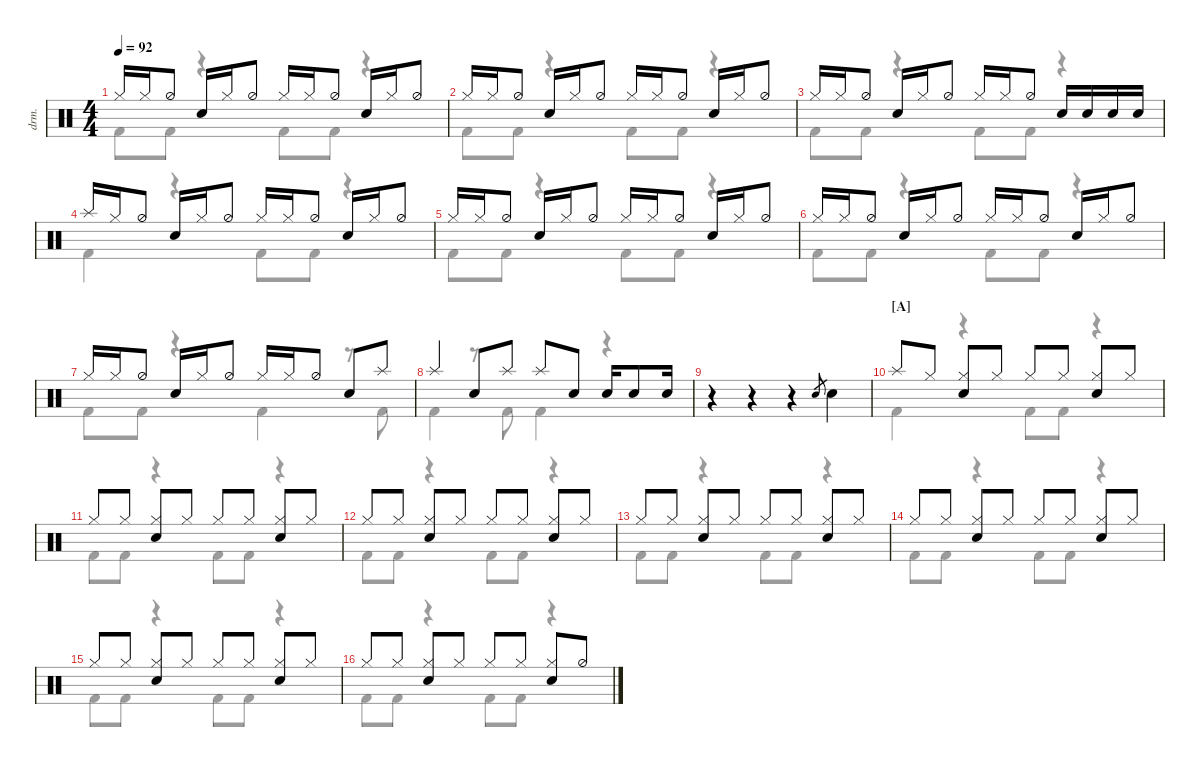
\defaultSystemsLayout 4
\hideDynamics
\bracketExtendMode nobrackets
\track ("Drumkit" "drm.") {defaultSystemsLayout 4 instrument percussion}
\staff {score}
\articulation defaults
\voice
\ts (4 4)
\tempo 92
\clef neutral
\ks c "Hi-Hat (closed)".16{dy mf beam Up} "Hi-Hat (closed)".16{beam Up} "Hi-Hat (half)".8{beam Up} "Snare (hit) 2".16{beam Up} "Hi-Hat (closed)".16{beam Up} "Hi-Hat (half)".8{beam Up} "Hi-Hat (closed)".16{beam Up} "Hi-Hat (closed)".16{beam Up} "Hi-Hat (half)".8{beam Up} "Snare (hit) 2".16{beam Up} "Hi-Hat (closed)".16{beam Up} "Hi-Hat (half)".8{beam Up}
|
"Hi-Hat (closed)".16{beam Up} "Hi-Hat (closed)".16{beam Up} "Hi-Hat (half)".8{beam Up} "Snare (hit) 2".16{beam Up} "Hi-Hat (closed)".16{beam Up} "Hi-Hat (half)".8{beam Up} "Hi-Hat (closed)".16{beam Up} "Hi-Hat (closed)".16{beam Up} "Hi-Hat (half)".8{beam Up} "Snare (hit) 2".16{beam Up} "Hi-Hat (closed)".16{beam Up} "Hi-Hat (half)".8{beam Up} |
"Hi-Hat (closed)".16{beam Up} "Hi-Hat (closed)".16{beam Up} "Hi-Hat (half)".8{beam Up} "Snare (hit) 2".16{beam Up} "Hi-Hat (closed)".16{beam Up} "Hi-Hat (half)".8{beam Up} "Hi-Hat (closed)".16{beam Up} "Hi-Hat (closed)".16{beam Up} "Hi-Hat (half)".8{beam Up} "Snare (hit) 2".16{beam Up} "Snare (hit) 2".16{beam Up} "Snare (hit) 2".16{beam Up} "Snare (hit) 2".16{beam Up} |
"Splash (hit)".16{beam Up} "Hi-Hat (closed)".16{beam Up} "Hi-Hat (half)".8{beam Up} "Snare (hit) 2".16{beam Up} "Hi-Hat (closed)".16{beam Up} "Hi-Hat (half)".8{beam Up} "Hi-Hat (closed)".16{beam Up} "Hi-Hat (closed)".16{beam Up} "Hi-Hat (half)".8{beam Up} "Snare (hit) 2".16{beam Up} "Hi-Hat (closed)".16{beam Up} "Hi-Hat (half)".8{beam Up} |
"Hi-Hat (closed)".16{beam Up} "Hi-Hat (closed)".16{beam Up} "Hi-Hat (half)".8{beam Up} "Snare (hit) 2".16{beam Up} "Hi-Hat (closed)".16{beam Up} "Hi-Hat (half)".8{beam Up} "Hi-Hat (closed)".16{beam Up} "Hi-Hat (closed)".16{beam Up} "Hi-Hat (half)".8{beam Up} "Snare (hit) 2".16{beam Up} "Hi-Hat (closed)".16{beam Up} "Hi-Hat (half)".8{beam Up} |
"Hi-Hat (closed)".16{beam Up} "Hi-Hat (closed)".16{beam Up} "Hi-Hat (half)".8{beam Up} "Snare (hit) 2".16{beam Up} "Hi-Hat (closed)".16{beam Up} "Hi-Hat (half)".8{beam Up} "Hi-Hat (closed)".16{beam Up} "Hi-Hat (closed)".16{beam Up} "Hi-Hat (half)".8{beam Up} "Snare (hit) 2".16{beam Up} "Hi-Hat (closed)".16{beam Up} "Hi-Hat (half)".8{beam Up} |
"Hi-Hat (closed)".16{beam Up} "Hi-Hat (closed)".16{beam Up} "Hi-Hat (half)".8{beam Up} "Snare (hit) 2".16{beam Up} "Hi-Hat (closed)".16{beam Up} "Hi-Hat (half)".8{beam Up} "Hi-Hat (closed)".16{beam Up} "Hi-Hat (closed)".16{beam Up} "Hi-Hat (half)".8{beam Up} "Snare (hit) 2".8{beam Up} "Splash (hit)".8{beam Up} |
"Splash (hit)".4{beam Up} "Snare (hit) 2".8{beam Up} "Splash (hit)".8{beam Up} "Splash (hit)".8{beam Up} "Snare (hit) 2".8{beam Up} "Snare (hit) 2".16{beam Up} "Snare (hit) 2".8{beam Up} "Snare (hit) 2".16{beam Up} |
r.4{beam Down} r.4{beam Down} r.4{beam Down} "Snare (hit) 2".8{gr beam Up} "Snare (hit) 2".4{beam Down} |
\section ("A" "")
"Splash (hit)".8{beam Up} "Hi-Hat (closed)".8{beam Up} ("Hi-Hat (closed)" "Snare (hit) 2").8{beam Up} "Hi-Hat (closed)".8{beam Up} "Hi-Hat (closed)".8{beam Up} "Hi-Hat (closed)".8{beam Up} ("Hi-Hat (closed)" "Snare (hit) 2").8{beam Up} "Hi-Hat (closed)".8{beam Up} |
"Hi-Hat (closed)".8{beam Up} "Hi-Hat (closed)".8{beam Up} ("Hi-Hat (closed)" "Snare (hit) 2").8{beam Up} "Hi-Hat (closed)".8{beam Up} "Hi-Hat (closed)".8{beam Up} "Hi-Hat (closed)".8{beam Up} ("Hi-Hat (closed)" "Snare (hit) 2").8{beam Up} "Hi-Hat (closed)".8{beam Up} |
"Hi-Hat (closed)".8{beam Up} "Hi-Hat (closed)".8{beam Up} ("Hi-Hat (closed)" "Snare (hit) 2").8{beam Up} "Hi-Hat (closed)".8{beam Up} "Hi-Hat (closed)".8{beam Up} "Hi-Hat (closed)".8{beam Up} ("Hi-Hat (closed)" "Snare (hit) 2").8{beam Up} "Hi-Hat (closed)".8{beam Up} |
"Hi-Hat (closed)".8{beam Up} "Hi-Hat (closed)".8{beam Up} ("Hi-Hat (closed)" "Snare (hit) 2").8{beam Up} "Hi-Hat (closed)".8{beam Up} "Hi-Hat (closed)".8{beam Up} "Hi-Hat (closed)".8{beam Up} ("Hi-Hat (closed)" "Snare (hit) 2").8{beam Up} "Hi-Hat (closed)".8{beam Up} |
"Hi-Hat (closed)".8{beam Up} "Hi-Hat (closed)".8{beam Up} ("Hi-Hat (closed)" "Snare (hit) 2").8{beam Up} "Hi-Hat (closed)".8{beam Up} "Hi-Hat (closed)".8{beam Up} "Hi-Hat (closed)".8{beam Up} ("Hi-Hat (closed)" "Snare (hit) 2").8{beam Up} "Hi-Hat (closed)".8{beam Up} |
"Hi-Hat (closed)".8{beam Up} "Hi-Hat (closed)".8{beam Up} ("Hi-Hat (closed)" "Snare (hit) 2").8{beam Up} "Hi-Hat (closed)".8{beam Up} "Hi-Hat (closed)".8{beam Up} "Hi-Hat (closed)".8{beam Up} ("Hi-Hat (closed)" "Snare (hit) 2").8{beam Up} "Hi-Hat (closed)".8{beam Up} |
"Hi-Hat (closed)".8{beam Up} "Hi-Hat (closed)".8{beam Up} ("Hi-Hat (closed)" "Snare (hit) 2").8{beam Up} "Hi-Hat (closed)".8{beam Up} "Hi-Hat (closed)".8{beam Up} "Hi-Hat (closed)".8{beam Up} ("Hi-Hat (closed)" "Snare (hit) 2").8{beam Up} "Hi-Hat (half)".8{beam Up}
\voice
\clef neutral
\ottava regular
\simile none
\ks c "Kick (hit) 2".8{dy mf beam Down} "Kick (hit) 2".8{beam Down}
r.4{beam Down} "Kick (hit) 2".8{beam Down} "Kick (hit) 2".8{beam Down} r.4{beam Down} |
"Kick (hit) 2".8{beam Down} "Kick (hit) 2".8{beam Down} r.4{beam Down} "Kick (hit) 2".8{beam Down} "Kick (hit) 2".8{beam Down} r.4{beam Down} |
"Kick (hit) 2".8{beam Down} "Kick (hit) 2".8{beam Down} r.4{beam Down} "Kick (hit) 2".8{beam Down} "Kick (hit) 2".8{beam Down} r.4{beam Down} |
"Kick (hit) 2".4{beam Down} r.4{beam Down} "Kick (hit) 2".8{beam Down} "Kick (hit) 2".8{beam Down} r.4{beam Down} |
"Kick (hit) 2".8{beam Down} "Kick (hit) 2".8{beam Down} r.4{beam Down} "Kick (hit) 2".8{beam Down} "Kick (hit) 2".8{beam Down} r.4{beam Down} |
"Kick (hit) 2".8{beam Down} "Kick (hit) 2".8{beam Down} r.4{beam Down} "Kick (hit) 2".8{beam Down} "Kick (hit) 2".8{beam Down} r.4{beam Down} |
"Kick (hit) 2".8{beam Down} "Kick (hit) 2".8{beam Down} r.4{beam Down} "Kick (hit) 2".4{beam Down} r.8{beam Down} "Kick (hit) 2".8{beam Down} |
"Kick (hit) 2".4{beam Down} r.8{beam Down} "Kick (hit) 2".8{beam Down} "Kick (hit) 2".4{beam Down} r.4{beam Down} |
|
"Kick (hit) 2".4{beam Down} r.4{beam Down} "Kick (hit) 2".8{beam Down} "Kick (hit) 2".8{beam Down} r.4{beam Down} |
"Kick (hit) 2".8{beam Down} "Kick (hit) 2".8{beam Down} r.4{beam Down} "Kick (hit) 2".8{beam Down} "Kick (hit) 2".8{beam Down} r.4{beam Down} |
"Kick (hit) 2".8{beam Down} "Kick (hit) 2".8{beam Down} r.4{beam Down} "Kick (hit) 2".8{beam Down} "Kick (hit) 2".8{beam Down} r.4{beam Down} |
"Kick (hit) 2".8{beam Down} "Kick (hit) 2".8{beam Down} r.4{beam Down} "Kick (hit) 2".8{beam Down} "Kick (hit) 2".8{beam Down} r.4{beam Down} |
"Kick (hit) 2".8{beam Down} "Kick (hit) 2".8{beam Down} r.4{beam Down} "Kick (hit) 2".8{beam Down} "Kick (hit) 2".8{beam Down} r.4{beam Down} |
"Kick (hit) 2".8{beam Down} "Kick (hit) 2".8{beam Down} r.4{beam Down} "Kick (hit) 2".8{beam Down} "Kick (hit) 2".8{beam Down} r.4{beam Down} |
"Kick (hit) 2".8{beam Down} "Kick (hit) 2".8{beam Down} r.4{beam Down} "Kick (hit) 2".8{beam Down} "Kick (hit) 2".8{beam Down} r.4{beam Down}
